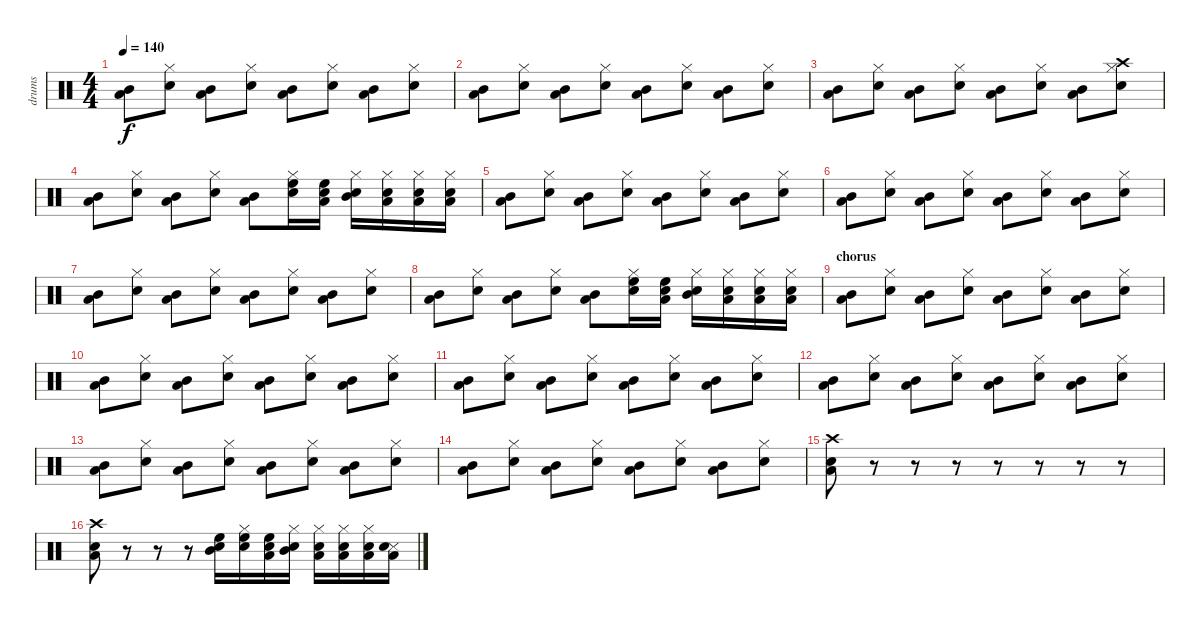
\track ("drums" "drums") {instrument percussion}
\staff {score}
\articulation defaults
\ts (4 4)
\tempo 140
\clef neutral
\ks c
("Low Floor Tom (hit)" "Mid Tom (hit)").8{dy f} ("Hi-Hat (closed)" "Snare (hit) 2").8 ("Mid Tom (hit)" "Low Floor Tom (hit)").8 ("Snare (hit) 2" "Hi-Hat (closed)").8 ("Mid Tom (hit)" "Low Floor Tom (hit)").8 ("Hi-Hat (closed)" "Snare (hit) 2").8 ("Mid Tom (hit)" "Low Floor Tom (hit)").8 ("Hi-Hat (closed)" "Snare (hit) 2").8 |
("Low Floor Tom (hit)" "Mid Tom (hit)").8 ("Hi-Hat (closed)" "Snare (hit) 2").8 ("Mid Tom (hit)" "Low Floor Tom (hit)").8 ("Snare (hit) 2" "Hi-Hat (closed)").8 ("Mid Tom (hit)" "Low Floor Tom (hit)").8 ("Hi-Hat (closed)" "Snare (hit) 2").8 ("Mid Tom (hit)" "Low Floor Tom (hit)").8 ("Hi-Hat (closed)" "Snare (hit) 2").8 |
("Low Floor Tom (hit)" "Mid Tom (hit)").8 ("Hi-Hat (closed)" "Snare (hit) 2").8 ("Mid Tom (hit)" "Low Floor Tom (hit)").8 ("Snare (hit) 2" "Hi-Hat (closed)").8 ("Mid Tom (hit)" "Low Floor Tom (hit)").8 ("Hi-Hat (closed)" "Snare (hit) 2").8 ("Mid Tom (hit)" "Low Floor Tom (hit)").8 ("Crash high (hit)" "Snare (hit) 2" "Hi-Hat (closed)").8 |
("Low Floor Tom (hit)" "Mid Tom (hit)").8 ("Hi-Hat (closed)" "Snare (hit) 2").8 ("Mid Tom (hit)" "Low Floor Tom (hit)").8 ("Snare (hit) 2" "Hi-Hat (closed)").8 ("Mid Tom (hit)" "Low Floor Tom (hit)").8 ("Hi-Hat (closed)" "Snare (hit) 2" "High Floor Tom (hit)").16 ("Snare (hit) 2" "High Floor Tom (hit)" "Low Floor Tom (hit)").16 ("Snare (hit) 2" "Mid Tom (hit)" "Hi-Hat (closed)").16 ("Snare (hit) 2" "Low Tom (hit)" "Hi-Hat (closed)").16 ("Snare (hit) 2" "Low Floor Tom (hit)" "Hi-Hat (closed)").16 ("Snare (hit) 2" "Low Floor Tom (hit)" "Hi-Hat (closed)").16 |
("Low Floor Tom (hit)" "Mid Tom (hit)").8 ("Hi-Hat (closed)" "Snare (hit) 2").8 ("Mid Tom (hit)" "Low Floor Tom (hit)").8 ("Snare (hit) 2" "Hi-Hat (closed)").8 ("Mid Tom (hit)" "Low Floor Tom (hit)").8 ("Hi-Hat (closed)" "Snare (hit) 2").8 ("Mid Tom (hit)" "Low Floor Tom (hit)").8 ("Hi-Hat (closed)" "Snare (hit) 2").8 |
("Low Floor Tom (hit)" "Mid Tom (hit)").8 ("Hi-Hat (closed)" "Snare (hit) 2").8 ("Mid Tom (hit)" "Low Floor Tom (hit)").8 ("Snare (hit) 2" "Hi-Hat (closed)").8 ("Mid Tom (hit)" "Low Floor Tom (hit)").8 ("Hi-Hat (closed)" "Snare (hit) 2").8 ("Mid Tom (hit)" "Low Floor Tom (hit)").8 ("Hi-Hat (closed)" "Snare (hit) 2").8 |
("Low Floor Tom (hit)" "Mid Tom (hit)").8 ("Hi-Hat (closed)" "Snare (hit) 2").8 ("Mid Tom (hit)" "Low Floor Tom (hit)").8 ("Snare (hit) 2" "Hi-Hat (closed)").8 ("Mid Tom (hit)" "Low Floor Tom (hit)").8 ("Hi-Hat (closed)" "Snare (hit) 2").8 ("Mid Tom (hit)" "Low Floor Tom (hit)").8 ("Hi-Hat (closed)" "Snare (hit) 2").8 |
("Low Floor Tom (hit)" "Mid Tom (hit)").8 ("Hi-Hat (closed)" "Snare (hit) 2").8 ("Mid Tom (hit)" "Low Floor Tom (hit)").8 ("Snare (hit) 2" "Hi-Hat (closed)").8 ("Mid Tom (hit)" "Low Floor Tom (hit)").8 ("Hi-Hat (closed)" "Snare (hit) 2" "High Floor Tom (hit)").16 ("Snare (hit) 2" "High Floor Tom (hit)" "Low Floor Tom (hit)").16 ("Snare (hit) 2" "Mid Tom (hit)" "Hi-Hat (closed)").16 ("Snare (hit) 2" "Low Tom (hit)" "Hi-Hat (closed)").16 ("Snare (hit) 2" "Low Floor Tom (hit)" "Hi-Hat (closed)").16 ("Snare (hit) 2" "Low Floor Tom (hit)" "Hi-Hat (closed)").16 |
\section ("" "chorus")
("Low Floor Tom (hit)" "Mid Tom (hit)").8 ("Hi-Hat (closed)" "Snare (hit) 2").8 ("Mid Tom (hit)" "Low Floor Tom (hit)").8 ("Snare (hit) 2" "Hi-Hat (closed)").8 ("Mid Tom (hit)" "Low Floor Tom (hit)").8 ("Hi-Hat (closed)" "Snare (hit) 2").8 ("Mid Tom (hit)" "Low Floor Tom (hit)").8 ("Hi-Hat (closed)" "Snare (hit) 2").8 |
("Low Floor Tom (hit)" "Mid Tom (hit)").8 ("Hi-Hat (closed)" "Snare (hit) 2").8 ("Mid Tom (hit)" "Low Floor Tom (hit)").8 ("Snare (hit) 2" "Hi-Hat (closed)").8 ("Mid Tom (hit)" "Low Floor Tom (hit)").8 ("Hi-Hat (closed)" "Snare (hit) 2").8 ("Mid Tom (hit)" "Low Floor Tom (hit)").8 ("Hi-Hat (closed)" "Snare (hit) 2").8 |
("Low Floor Tom (hit)" "Mid Tom (hit)").8 ("Hi-Hat (closed)" "Snare (hit) 2").8 ("Mid Tom (hit)" "Low Floor Tom (hit)").8 ("Snare (hit) 2" "Hi-Hat (closed)").8 ("Mid Tom (hit)" "Low Floor Tom (hit)").8 ("Hi-Hat (closed)" "Snare (hit) 2").8 ("Mid Tom (hit)" "Low Floor Tom (hit)").8 ("Hi-Hat (closed)" "Snare (hit) 2").8 |
("Low Floor Tom (hit)" "Mid Tom (hit)").8 ("Hi-Hat (closed)" "Snare (hit) 2").8 ("Mid Tom (hit)" "Low Floor Tom (hit)").8 ("Snare (hit) 2" "Hi-Hat (closed)").8 ("Mid Tom (hit)" "Low Floor Tom (hit)").8 ("Hi-Hat (closed)" "Snare (hit) 2").8 ("Mid Tom (hit)" "Low Floor Tom (hit)").8 ("Hi-Hat (closed)" "Snare (hit) 2").8 |
("Low Floor Tom (hit)" "Mid Tom (hit)").8 ("Hi-Hat (closed)" "Snare (hit) 2").8 ("Mid Tom (hit)" "Low Floor Tom (hit)").8 ("Snare (hit) 2" "Hi-Hat (closed)").8 ("Mid Tom (hit)" "Low Floor Tom (hit)").8 ("Hi-Hat (closed)" "Snare (hit) 2").8 ("Mid Tom (hit)" "Low Floor Tom (hit)").8 ("Hi-Hat (closed)" "Snare (hit) 2").8 |
("Low Floor Tom (hit)" "Mid Tom (hit)").8 ("Hi-Hat (closed)" "Snare (hit) 2").8 ("Mid Tom (hit)" "Low Floor Tom (hit)").8 ("Snare (hit) 2" "Hi-Hat (closed)").8 ("Mid Tom (hit)" "Low Floor Tom (hit)").8 ("Hi-Hat (closed)" "Snare (hit) 2").8 ("Mid Tom (hit)" "Low Floor Tom (hit)").8 ("Hi-Hat (closed)" "Snare (hit) 2").8 |
("Low Tom (hit)" "Snare (hit) 2" "Crash high (hit)").8 r.8 r.8 r.8 r.8 r.8 r.8 r.8 |
("Crash high (hit)" "Snare (hit) 2" "Low Tom (hit)").8 r.8 r.8 r.8 ("High Floor Tom (hit)" "Mid Tom (hit)" "Snare (hit) 2").16 ("Hi-Hat (closed)" "Snare (hit) 2" "High Floor Tom (hit)").16 ("Snare (hit) 2" "High Floor Tom (hit)" "Low Floor Tom (hit)").16 ("Snare (hit) 2" "Mid Tom (hit)" "Hi-Hat (closed)").16 ("Snare (hit) 2" "Low Tom (hit)" "Hi-Hat (closed)").16 ("Snare (hit) 2" "Low Floor Tom (hit)" "Hi-Hat (closed)").16 ("Snare (hit) 2" "Low Floor Tom (hit)" "Hi-Hat (closed)").16 ("Low Tom (hit)" "Snare (side stick) 3" "Snare (hit) 2").16
